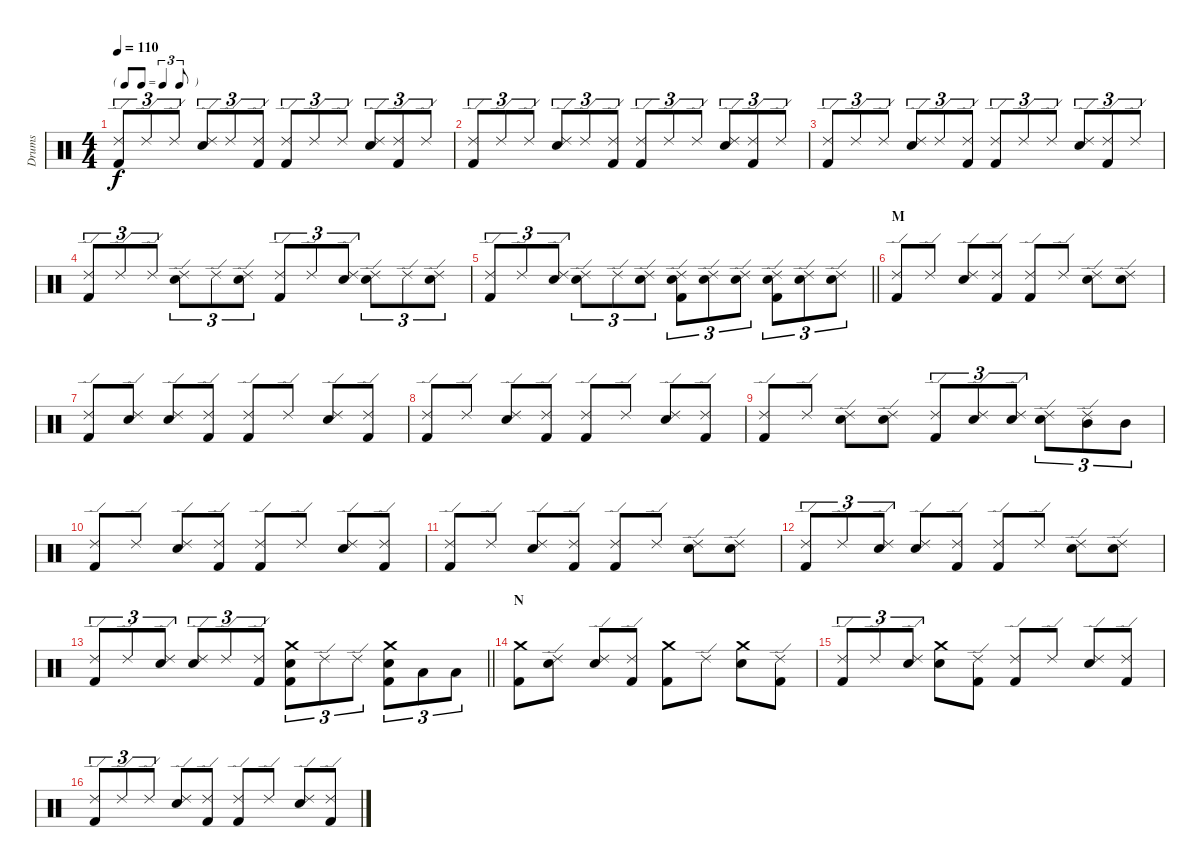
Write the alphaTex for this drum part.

\track ("Drums" "Drums") {instrument percussion}
\staff {score}
\articulation defaults
\ts (4 4)
\tf triplet8th
\tempo 110
\clef neutral
\ks c
("Ride (edge) 2" "Kick (hit) 2").8{tu (3 2) dy f} "Ride (edge) 2".8{tu (3 2)} "Ride (edge) 2".8{tu (3 2)} ("Ride (edge) 2" "Snare (hit) 2").8{tu (3 2)} "Ride (edge) 2".8{tu (3 2)} ("Ride (edge) 2" "Kick (hit) 2").8{tu (3 2)} ("Ride (edge) 2" "Kick (hit) 2").8{tu (3 2)} "Ride (edge) 2".8{tu (3 2)} "Ride (edge) 2".8{tu (3 2)} ("Ride (edge) 2" "Snare (hit) 2").8{tu (3 2)} ("Ride (edge) 2" "Kick (hit) 2").8{tu (3 2)} "Ride (edge) 2".8{tu (3 2)} |
("Ride (edge) 2" "Kick (hit) 2").8{tu (3 2)} "Ride (edge) 2".8{tu (3 2)} "Ride (edge) 2".8{tu (3 2)} ("Ride (edge) 2" "Snare (hit) 2").8{tu (3 2)} "Ride (edge) 2".8{tu (3 2)} ("Ride (edge) 2" "Kick (hit) 2").8{tu (3 2)} ("Ride (edge) 2" "Kick (hit) 2").8{tu (3 2)} "Ride (edge) 2".8{tu (3 2)} "Ride (edge) 2".8{tu (3 2)} ("Ride (edge) 2" "Snare (hit) 2").8{tu (3 2)} ("Ride (edge) 2" "Kick (hit) 2").8{tu (3 2)} "Ride (edge) 2".8{tu (3 2)} |
("Ride (edge) 2" "Kick (hit) 2").8{tu (3 2)} "Ride (edge) 2".8{tu (3 2)} "Ride (edge) 2".8{tu (3 2)} ("Ride (edge) 2" "Snare (hit) 2").8{tu (3 2)} "Ride (edge) 2".8{tu (3 2)} ("Ride (edge) 2" "Kick (hit) 2").8{tu (3 2)} ("Ride (edge) 2" "Kick (hit) 2").8{tu (3 2)} "Ride (edge) 2".8{tu (3 2)} "Ride (edge) 2".8{tu (3 2)} ("Ride (edge) 2" "Snare (hit) 2").8{tu (3 2)} ("Ride (edge) 2" "Kick (hit) 2").8{tu (3 2)} "Ride (edge) 2".8{tu (3 2)} |
("Ride (edge) 2" "Kick (hit) 2").8{tu (3 2)} "Ride (edge) 2".8{tu (3 2)} "Ride (edge) 2".8{tu (3 2)} ("Ride (edge) 2" "Snare (hit) 2").8{tu (3 2)} "Ride (edge) 2".8{tu (3 2)} ("Ride (edge) 2" "Snare (hit) 2").8{tu (3 2)} ("Ride (edge) 2" "Kick (hit) 2").8{tu (3 2)} "Ride (edge) 2".8{tu (3 2)} ("Ride (edge) 2" "Snare (hit) 2").8{tu (3 2)} ("Ride (edge) 2" "Snare (hit) 2").8{tu (3 2)} "Ride (edge) 2".8{tu (3 2)} ("Ride (edge) 2" "Snare (hit) 2").8{tu (3 2)} |
\barLineRight lightlight
("Ride (edge) 2" "Kick (hit) 2").8{tu (3 2)} "Ride (edge) 2".8{tu (3 2)} ("Ride (edge) 2" "Snare (hit) 2").8{tu (3 2)} ("Ride (edge) 2" "Snare (hit) 2").8{tu (3 2)} "Ride (edge) 2".8{tu (3 2)} ("Ride (edge) 2" "Snare (hit) 2").8{tu (3 2)} ("Ride (edge) 2" "Kick (hit) 2" "Snare (hit) 2").8{tu (3 2)} ("Ride (edge) 2" "Snare (hit) 2").8{tu (3 2)} ("Ride (edge) 2" "Snare (hit) 2").8{tu (3 2)} ("Ride (edge) 2" "Snare (hit) 2" "Kick (hit) 2").8{tu (3 2)} ("Ride (edge) 2" "Snare (hit) 2").8{tu (3 2)} ("Ride (edge) 2" "Snare (hit) 2").8{tu (3 2)} |
\section ("" "M")
("Ride (edge) 2" "Kick (hit) 2").8 "Ride (edge) 2".8 ("Ride (edge) 2" "Snare (hit) 2").8 ("Ride (edge) 2" "Kick (hit) 2").8 ("Ride (edge) 2" "Kick (hit) 2").8 "Ride (edge) 2".8 ("Ride (edge) 2" "Snare (hit) 2").8 ("Ride (edge) 2" "Snare (hit) 2").8 |
("Ride (edge) 2" "Kick (hit) 2").8 ("Ride (edge) 2" "Snare (hit) 2").8 ("Ride (edge) 2" "Snare (hit) 2").8 ("Ride (edge) 2" "Kick (hit) 2").8 ("Ride (edge) 2" "Kick (hit) 2").8 "Ride (edge) 2".8 ("Ride (edge) 2" "Snare (hit) 2").8 ("Ride (edge) 2" "Kick (hit) 2").8 |
("Ride (edge) 2" "Kick (hit) 2").8 "Ride (edge) 2".8 ("Ride (edge) 2" "Snare (hit) 2").8 ("Ride (edge) 2" "Kick (hit) 2").8 ("Ride (edge) 2" "Kick (hit) 2").8 "Ride (edge) 2".8 ("Ride (edge) 2" "Snare (hit) 2").8 ("Ride (edge) 2" "Kick (hit) 2").8 |
("Ride (edge) 2" "Kick (hit) 2").8 "Ride (edge) 2".8 ("Ride (edge) 2" "Snare (hit) 2").8 ("Ride (edge) 2" "Snare (hit) 2").8 ("Ride (edge) 2" "Kick (hit) 2").8{tu (3 2)} ("Ride (edge) 2" "Snare (hit) 2").8{tu (3 2)} ("Ride (edge) 2" "Snare (hit) 2").8{tu (3 2)} ("Ride (edge) 2" "Snare (hit) 2").8{tu (3 2)} ("Ride (edge) 2" "Mid Tom (hit)").8{tu (3 2)} "Mid Tom (hit)".8{tu (3 2)} |
("Ride (edge) 2" "Kick (hit) 2").8 "Ride (edge) 2".8 ("Ride (edge) 2" "Snare (hit) 2").8 ("Ride (edge) 2" "Kick (hit) 2").8 ("Ride (edge) 2" "Kick (hit) 2").8 "Ride (edge) 2".8 ("Ride (edge) 2" "Snare (hit) 2").8 ("Ride (edge) 2" "Kick (hit) 2").8 |
("Ride (edge) 2" "Kick (hit) 2").8 "Ride (edge) 2".8 ("Ride (edge) 2" "Snare (hit) 2").8 ("Ride (edge) 2" "Kick (hit) 2").8 ("Ride (edge) 2" "Kick (hit) 2").8 "Ride (edge) 2".8 ("Ride (edge) 2" "Snare (hit) 2").8 ("Ride (edge) 2" "Snare (hit) 2").8 |
("Ride (edge) 2" "Kick (hit) 2").8{tu (3 2)} "Ride (edge) 2".8{tu (3 2)} ("Ride (edge) 2" "Snare (hit) 2").8{tu (3 2)} ("Ride (edge) 2" "Snare (hit) 2").8 ("Ride (edge) 2" "Kick (hit) 2").8 ("Ride (edge) 2" "Kick (hit) 2").8 "Ride (edge) 2".8 ("Ride (edge) 2" "Snare (hit) 2").8 ("Ride (edge) 2" "Snare (hit) 2").8 |
\barLineRight lightlight
("Ride (edge) 2" "Kick (hit) 2").8{tu (3 2)} "Ride (edge) 2".8{tu (3 2)} ("Ride (edge) 2" "Snare (hit) 2").8{tu (3 2)} ("Ride (edge) 2" "Snare (hit) 2").8{tu (3 2)} "Ride (edge) 2".8{tu (3 2)} ("Ride (edge) 2" "Kick (hit) 2").8{tu (3 2)} ("Crash medium (hit)" "Snare (hit) 2" "Kick (hit) 2").8{tu (3 2)} "Ride (edge) 2".8{tu (3 2)} "Ride (edge) 2".8{tu (3 2)} ("Crash medium (hit)" "Snare (hit) 2" "Kick (hit) 2").8{tu (3 2)} "Low Tom (hit)".8{tu (3 2)} "Low Tom (hit)".8{tu (3 2)} |
\section ("" "N")
("Crash medium (hit)" "Kick (hit) 2").8 ("Ride (edge) 2" "Snare (hit) 2").8 ("Ride (edge) 2" "Snare (hit) 2").8 ("Ride (edge) 2" "Kick (hit) 2").8 ("Crash medium (hit)" "Kick (hit) 2").8 "Ride (edge) 2".8 ("Crash medium (hit)" "Snare (hit) 2").8 ("Ride (edge) 2" "Kick (hit) 2").8 |
("Ride (edge) 2" "Kick (hit) 2").8{tu (3 2)} "Ride (edge) 2".8{tu (3 2)} ("Ride (edge) 2" "Snare (hit) 2").8{tu (3 2)} ("Crash medium (hit)" "Snare (hit) 2").8 ("Ride (edge) 2" "Kick (hit) 2").8 ("Ride (edge) 2" "Kick (hit) 2").8 "Ride (edge) 2".8 ("Ride (edge) 2" "Snare (hit) 2").8 ("Ride (edge) 2" "Kick (hit) 2").8 |
("Ride (edge) 2" "Kick (hit) 2").8{tu (3 2)} "Ride (edge) 2".8{tu (3 2)} "Ride (edge) 2".8{tu (3 2)} ("Ride (edge) 2" "Snare (hit) 2").8 ("Ride (edge) 2" "Kick (hit) 2").8 ("Ride (edge) 2" "Kick (hit) 2").8 "Ride (edge) 2".8 ("Ride (edge) 2" "Snare (hit) 2").8 ("Ride (edge) 2" "Kick (hit) 2").8
